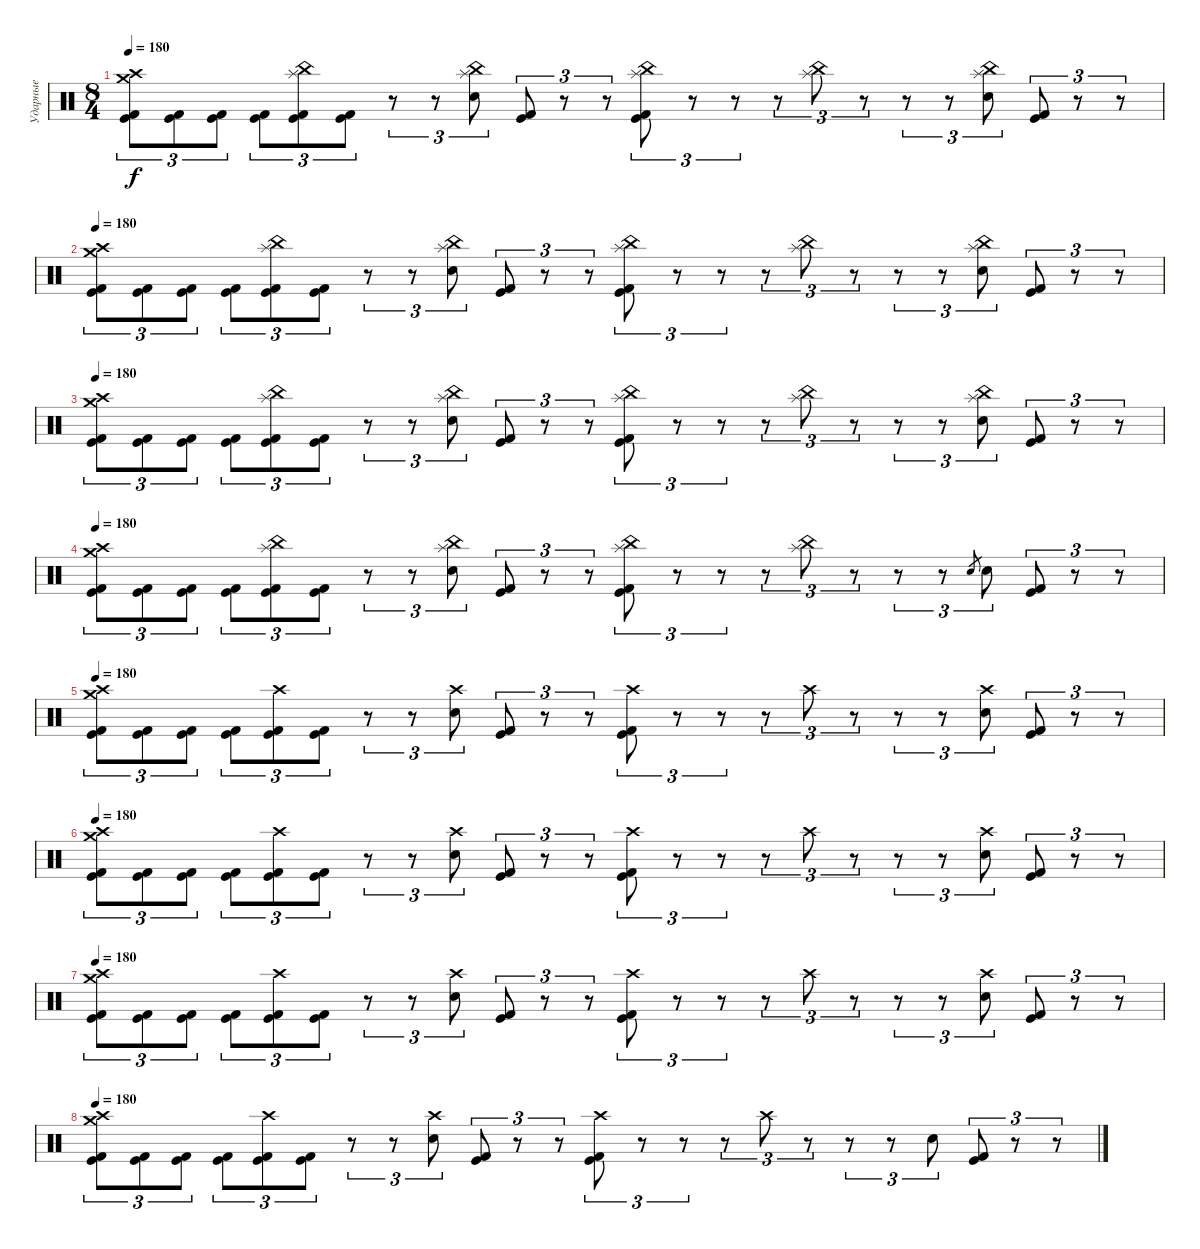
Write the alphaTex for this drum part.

\track ("Ударные" "Ударные") {instrument percussion}
\staff {score}
\articulation defaults
\ts (8 4)
\section ("" "")
\tempo 180
\clef neutral
\ks c
("Crash medium (hit)" "Crash high (hit)" "Kick (hit)" "Kick (hit) 2").8{tu (3 2) dy f} ("Kick (hit)" "Kick (hit) 2").8{tu (3 2)} ("Kick (hit)" "Kick (hit) 2").8{tu (3 2)} ("Kick (hit)" "Kick (hit) 2").8{tu (3 2)} ("Splash (hit)" "China (hit)" "Kick (hit)" "Kick (hit) 2").8{tu (3 2)} ("Kick (hit)" "Kick (hit) 2").8{tu (3 2)} r.8{tu (3 2)} r.8{tu (3 2)} ("Splash (hit)" "China (hit)" "Electric Snare (hit)").8{tu (3 2)} ("Kick (hit)" "Kick (hit) 2").8{tu (3 2)} r.8{tu (3 2)} r.8{tu (3 2)} ("Splash (hit)" "China (hit)" "Kick (hit)" "Kick (hit) 2").8{tu (3 2)} r.8{tu (3 2)} r.8{tu (3 2)} r.8{tu (3 2)} ("Splash (hit)" "China (hit)").8{tu (3 2)} r.8{tu (3 2)} r.8{tu (3 2)} r.8{tu (3 2)} ("Splash (hit)" "China (hit)" "Electric Snare (hit)").8{tu (3 2)} ("Kick (hit)" "Kick (hit) 2").8{tu (3 2)} r.8{tu (3 2)} r.8{tu (3 2)} |
\tempo 180
("Crash medium (hit)" "Crash high (hit)" "Kick (hit)" "Kick (hit) 2").8{tu (3 2)} ("Kick (hit)" "Kick (hit) 2").8{tu (3 2)} ("Kick (hit)" "Kick (hit) 2").8{tu (3 2)} ("Kick (hit)" "Kick (hit) 2").8{tu (3 2)} ("Splash (hit)" "China (hit)" "Kick (hit)" "Kick (hit) 2").8{tu (3 2)} ("Kick (hit)" "Kick (hit) 2").8{tu (3 2)} r.8{tu (3 2)} r.8{tu (3 2)} ("Splash (hit)" "China (hit)" "Electric Snare (hit)").8{tu (3 2)} ("Kick (hit)" "Kick (hit) 2").8{tu (3 2)} r.8{tu (3 2)} r.8{tu (3 2)} ("Splash (hit)" "China (hit)" "Kick (hit)" "Kick (hit) 2").8{tu (3 2)} r.8{tu (3 2)} r.8{tu (3 2)} r.8{tu (3 2)} ("Splash (hit)" "China (hit)").8{tu (3 2)} r.8{tu (3 2)} r.8{tu (3 2)} r.8{tu (3 2)} ("Splash (hit)" "China (hit)" "Electric Snare (hit)").8{tu (3 2)} ("Kick (hit)" "Kick (hit) 2").8{tu (3 2)} r.8{tu (3 2)} r.8{tu (3 2)} |
\tempo 180
("Crash medium (hit)" "Crash high (hit)" "Kick (hit)" "Kick (hit) 2").8{tu (3 2)} ("Kick (hit)" "Kick (hit) 2").8{tu (3 2)} ("Kick (hit)" "Kick (hit) 2").8{tu (3 2)} ("Kick (hit)" "Kick (hit) 2").8{tu (3 2)} ("Splash (hit)" "China (hit)" "Kick (hit)" "Kick (hit) 2").8{tu (3 2)} ("Kick (hit)" "Kick (hit) 2").8{tu (3 2)} r.8{tu (3 2)} r.8{tu (3 2)} ("Splash (hit)" "China (hit)" "Electric Snare (hit)").8{tu (3 2)} ("Kick (hit)" "Kick (hit) 2").8{tu (3 2)} r.8{tu (3 2)} r.8{tu (3 2)} ("Splash (hit)" "China (hit)" "Kick (hit)" "Kick (hit) 2").8{tu (3 2)} r.8{tu (3 2)} r.8{tu (3 2)} r.8{tu (3 2)} ("Splash (hit)" "China (hit)").8{tu (3 2)} r.8{tu (3 2)} r.8{tu (3 2)} r.8{tu (3 2)} ("Splash (hit)" "China (hit)" "Electric Snare (hit)").8{tu (3 2)} ("Kick (hit)" "Kick (hit) 2").8{tu (3 2)} r.8{tu (3 2)} r.8{tu (3 2)} |
\tempo 180
("Crash medium (hit)" "Crash high (hit)" "Kick (hit)" "Kick (hit) 2").8{tu (3 2)} ("Kick (hit)" "Kick (hit) 2").8{tu (3 2)} ("Kick (hit)" "Kick (hit) 2").8{tu (3 2)} ("Kick (hit)" "Kick (hit) 2").8{tu (3 2)} ("Splash (hit)" "China (hit)" "Kick (hit)" "Kick (hit) 2").8{tu (3 2)} ("Kick (hit)" "Kick (hit) 2").8{tu (3 2)} r.8{tu (3 2)} r.8{tu (3 2)} ("Splash (hit)" "China (hit)" "Electric Snare (hit)").8{tu (3 2)} ("Kick (hit)" "Kick (hit) 2").8{tu (3 2)} r.8{tu (3 2)} r.8{tu (3 2)} ("Splash (hit)" "China (hit)" "Kick (hit)" "Kick (hit) 2").8{tu (3 2)} r.8{tu (3 2)} r.8{tu (3 2)} r.8{tu (3 2)} ("Splash (hit)" "China (hit)").8{tu (3 2)} r.8{tu (3 2)} r.8{tu (3 2)} r.8{tu (3 2)} "Electric Snare (hit)".8{gr} "Electric Snare (hit)".8{tu (3 2)} ("Kick (hit)" "Kick (hit) 2").8{tu (3 2)} r.8{tu (3 2)} r.8{tu (3 2)} |
\tempo 180
("Crash medium (hit)" "Crash high (hit)" "Kick (hit)" "Kick (hit) 2").8{tu (3 2)} ("Kick (hit)" "Kick (hit) 2").8{tu (3 2)} ("Kick (hit)" "Kick (hit) 2").8{tu (3 2)} ("Kick (hit)" "Kick (hit) 2").8{tu (3 2)} ("Crash high (hit)" "Kick (hit)" "Kick (hit) 2").8{tu (3 2)} ("Kick (hit)" "Kick (hit) 2").8{tu (3 2)} r.8{tu (3 2)} r.8{tu (3 2)} ("Crash high (hit)" "Electric Snare (hit)").8{tu (3 2)} ("Kick (hit)" "Kick (hit) 2").8{tu (3 2)} r.8{tu (3 2)} r.8{tu (3 2)} ("Crash high (hit)" "Kick (hit)" "Kick (hit) 2").8{tu (3 2)} r.8{tu (3 2)} r.8{tu (3 2)} r.8{tu (3 2)} "Crash high (hit)".8{tu (3 2)} r.8{tu (3 2)} r.8{tu (3 2)} r.8{tu (3 2)} ("Crash high (hit)" "Electric Snare (hit)").8{tu (3 2)} ("Kick (hit)" "Kick (hit) 2").8{tu (3 2)} r.8{tu (3 2)} r.8{tu (3 2)} |
\tempo 180
("Crash medium (hit)" "Crash high (hit)" "Kick (hit)" "Kick (hit) 2").8{tu (3 2)} ("Kick (hit)" "Kick (hit) 2").8{tu (3 2)} ("Kick (hit)" "Kick (hit) 2").8{tu (3 2)} ("Kick (hit)" "Kick (hit) 2").8{tu (3 2)} ("Crash high (hit)" "Kick (hit)" "Kick (hit) 2").8{tu (3 2)} ("Kick (hit)" "Kick (hit) 2").8{tu (3 2)} r.8{tu (3 2)} r.8{tu (3 2)} ("Crash high (hit)" "Electric Snare (hit)").8{tu (3 2)} ("Kick (hit)" "Kick (hit) 2").8{tu (3 2)} r.8{tu (3 2)} r.8{tu (3 2)} ("Crash high (hit)" "Kick (hit)" "Kick (hit) 2").8{tu (3 2)} r.8{tu (3 2)} r.8{tu (3 2)} r.8{tu (3 2)} "Crash high (hit)".8{tu (3 2)} r.8{tu (3 2)} r.8{tu (3 2)} r.8{tu (3 2)} ("Crash high (hit)" "Electric Snare (hit)").8{tu (3 2)} ("Kick (hit)" "Kick (hit) 2").8{tu (3 2)} r.8{tu (3 2)} r.8{tu (3 2)} |
\tempo 180
("Crash medium (hit)" "Crash high (hit)" "Kick (hit)" "Kick (hit) 2").8{tu (3 2)} ("Kick (hit)" "Kick (hit) 2").8{tu (3 2)} ("Kick (hit)" "Kick (hit) 2").8{tu (3 2)} ("Kick (hit)" "Kick (hit) 2").8{tu (3 2)} ("Crash high (hit)" "Kick (hit)" "Kick (hit) 2").8{tu (3 2)} ("Kick (hit)" "Kick (hit) 2").8{tu (3 2)} r.8{tu (3 2)} r.8{tu (3 2)} ("Crash high (hit)" "Electric Snare (hit)").8{tu (3 2)} ("Kick (hit)" "Kick (hit) 2").8{tu (3 2)} r.8{tu (3 2)} r.8{tu (3 2)} ("Crash high (hit)" "Kick (hit)" "Kick (hit) 2").8{tu (3 2)} r.8{tu (3 2)} r.8{tu (3 2)} r.8{tu (3 2)} "Crash high (hit)".8{tu (3 2)} r.8{tu (3 2)} r.8{tu (3 2)} r.8{tu (3 2)} ("Crash high (hit)" "Electric Snare (hit)").8{tu (3 2)} ("Kick (hit)" "Kick (hit) 2").8{tu (3 2)} r.8{tu (3 2)} r.8{tu (3 2)} |
\tempo 180
("Crash medium (hit)" "Crash high (hit)" "Kick (hit)" "Kick (hit) 2").8{tu (3 2)} ("Kick (hit)" "Kick (hit) 2").8{tu (3 2)} ("Kick (hit)" "Kick (hit) 2").8{tu (3 2)} ("Kick (hit)" "Kick (hit) 2").8{tu (3 2)} ("Crash high (hit)" "Kick (hit)" "Kick (hit) 2").8{tu (3 2)} ("Kick (hit)" "Kick (hit) 2").8{tu (3 2)} r.8{tu (3 2)} r.8{tu (3 2)} ("Crash high (hit)" "Electric Snare (hit)").8{tu (3 2)} ("Kick (hit)" "Kick (hit) 2").8{tu (3 2)} r.8{tu (3 2)} r.8{tu (3 2)} ("Crash high (hit)" "Kick (hit)" "Kick (hit) 2").8{tu (3 2)} r.8{tu (3 2)} r.8{tu (3 2)} r.8{tu (3 2)} "Crash high (hit)".8{tu (3 2)} r.8{tu (3 2)} r.8{tu (3 2)} r.8{tu (3 2)} "Electric Snare (hit)".8{tu (3 2)} ("Kick (hit)" "Kick (hit) 2").8{tu (3 2)} r.8{tu (3 2)} r.8{tu (3 2)}
